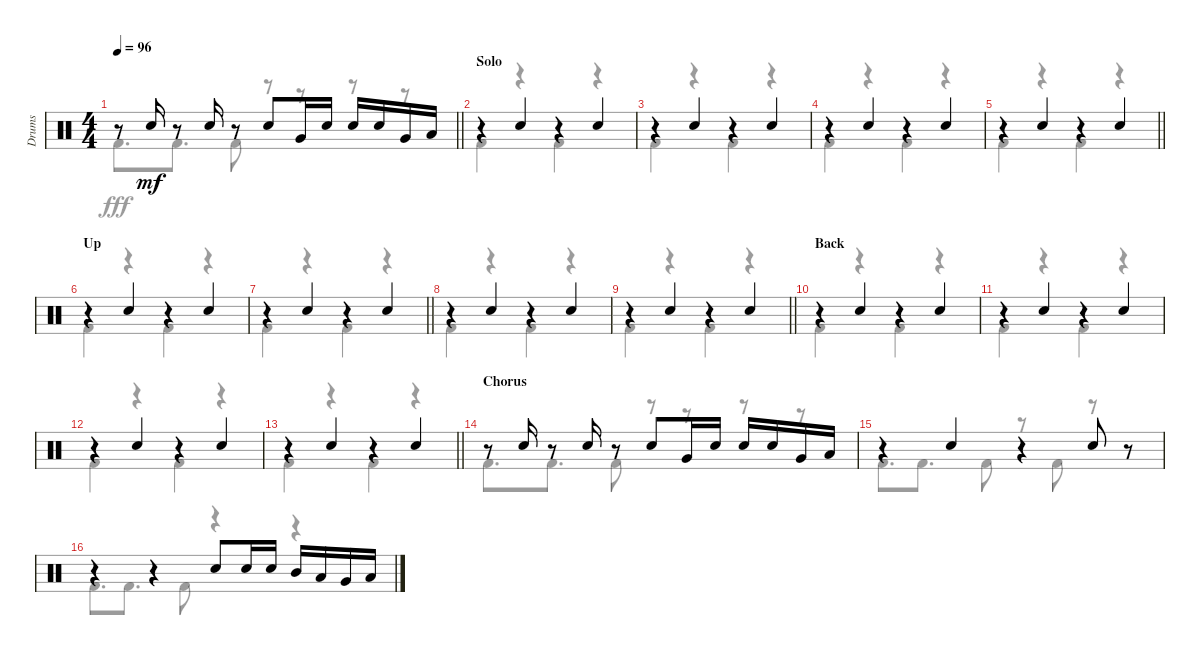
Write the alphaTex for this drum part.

\track ("Drums" "Drums") {instrument percussion}
\staff {score}
\articulation defaults
\voice
\ts (4 4)
\tempo 96
\clef neutral
\barLineRight lightlight
\ks c
r.8{dy mf} "Snare (hit) 2".16 r.8 "Snare (hit) 2".16 r.8 "Snare (hit) 2".8 "Very Low Tom (hit)".16 "Snare (hit) 2".16 "Snare (hit) 2".16 "Snare (hit) 2".16 "Very Low Tom (hit)".16 "Low Floor Tom (hit)".16 |
\section ("" "Solo")
r.4 "Snare (hit) 2".4 r.4 "Snare (hit) 2".4 |
r.4 "Snare (hit) 2".4 r.4 "Snare (hit) 2".4 |
r.4 "Snare (hit) 2".4 r.4 "Snare (hit) 2".4 |
\barLineRight lightlight
r.4 "Snare (hit) 2".4 r.4 "Snare (hit) 2".4 |
\section ("" "Up")
r.4 "Snare (hit) 2".4 r.4 "Snare (hit) 2".4 |
\barLineRight lightlight
r.4 "Snare (hit) 2".4 r.4 "Snare (hit) 2".4 |
r.4 "Snare (hit) 2".4 r.4 "Snare (hit) 2".4 |
\barLineRight lightlight
r.4 "Snare (hit) 2".4 r.4 "Snare (hit) 2".4 |
\section ("" "Back")
r.4 "Snare (hit) 2".4 r.4 "Snare (hit) 2".4 |
r.4 "Snare (hit) 2".4 r.4 "Snare (hit) 2".4 |
r.4 "Snare (hit) 2".4 r.4 "Snare (hit) 2".4 |
\barLineRight lightlight
r.4 "Snare (hit) 2".4 r.4 "Snare (hit) 2".4 |
\section ("" "Chorus")
r.8 "Snare (hit) 2".16 r.8 "Snare (hit) 2".16 r.8 "Snare (hit) 2".8 "Very Low Tom (hit)".16 "Snare (hit) 2".16 "Snare (hit) 2".16 "Snare (hit) 2".16 "Very Low Tom (hit)".16 "Low Floor Tom (hit)".16 |
r.4 "Snare (hit) 2".4 r.4 "Snare (hit) 2".8 r.8 |
r.4 r.4 "Snare (hit) 2".8 "Snare (hit) 2".16 "Snare (hit) 2".16 "Mid Tom (hit)".16 "Low Tom (hit)".16 "Very Low Tom (hit)".16 "Low Floor Tom (hit)".16
\voice
\clef neutral
\ottava regular
\simile none
\barLineRight lightlight
\ks c "Kick (hit) 2".8{d dy fff} "Kick (hit) 2".8{d} "Kick (hit) 2".8
r.8 r.8 r.8 r.8 |
"Kick (hit) 2".4 r.4 "Kick (hit) 2".4 r.4 |
"Kick (hit) 2".4 r.4 "Kick (hit) 2".4 r.4 |
"Kick (hit) 2".4 r.4 "Kick (hit) 2".4 r.4 |
\barLineRight lightlight "Kick (hit) 2".4
r.4 "Kick (hit) 2".4 r.4 |
"Kick (hit) 2".4 r.4 "Kick (hit) 2".4 r.4 |
\barLineRight lightlight "Kick (hit) 2".4
r.4 "Kick (hit) 2".4 r.4 |
"Kick (hit) 2".4 r.4 "Kick (hit) 2".4 r.4 |
\barLineRight lightlight "Kick (hit) 2".4
r.4 "Kick (hit) 2".4 r.4 |
"Kick (hit) 2".4 r.4 "Kick (hit) 2".4 r.4 |
"Kick (hit) 2".4 r.4 "Kick (hit) 2".4 r.4 |
"Kick (hit) 2".4 r.4 "Kick (hit) 2".4 r.4 |
\barLineRight lightlight "Kick (hit) 2".4
r.4 "Kick (hit) 2".4 r.4 |
"Kick (hit) 2".8{d} "Kick (hit) 2".8{d} "Kick (hit) 2".8 r.8 r.8 r.8 r.8 |
"Kick (hit) 2".8{d} "Kick (hit) 2".8{d} "Kick (hit) 2".8 r.8 "Kick (hit) 2".8 r.8 r.8 |
"Kick (hit) 2".8{d} "Kick (hit) 2".8{d} "Kick (hit) 2".8 r.4 r.4
